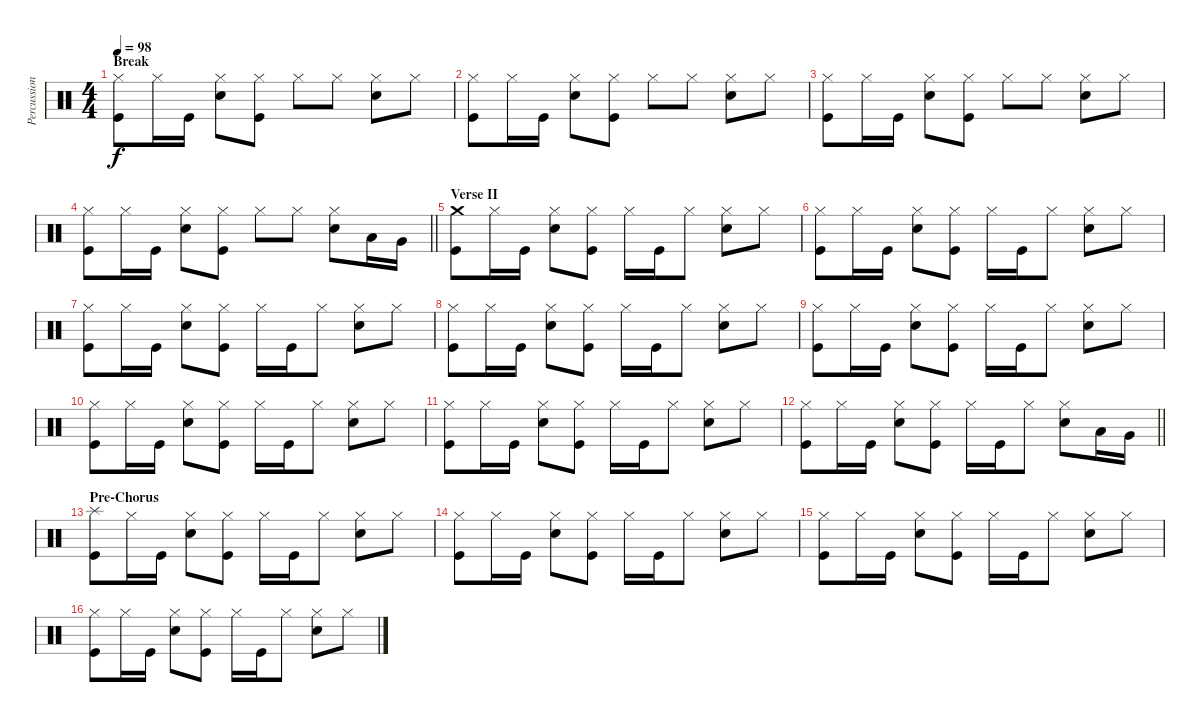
\track ("Percussion" "Percussion") {instrument percussion}
\staff {score}
\articulation defaults
\ts (4 4)
\section ("" "Break")
\tempo 98
\clef neutral
\ks c
("Hi-Hat (closed)" "Kick (hit)").8{dy f} "Hi-Hat (closed)".16 "Kick (hit)".16 ("Hi-Hat (closed)" "Electric Snare (hit)").8 ("Hi-Hat (closed)" "Kick (hit)").8 "Hi-Hat (closed)".8 "Hi-Hat (closed)".8 ("Hi-Hat (closed)" "Electric Snare (hit)").8 "Hi-Hat (closed)".8 |
("Hi-Hat (closed)" "Kick (hit)").8 "Hi-Hat (closed)".16 "Kick (hit)".16 ("Hi-Hat (closed)" "Electric Snare (hit)").8 ("Hi-Hat (closed)" "Kick (hit)").8 "Hi-Hat (closed)".8 "Hi-Hat (closed)".8 ("Hi-Hat (closed)" "Electric Snare (hit)").8 "Hi-Hat (closed)".8 |
("Hi-Hat (closed)" "Kick (hit)").8 "Hi-Hat (closed)".16 "Kick (hit)".16 ("Hi-Hat (closed)" "Electric Snare (hit)").8 ("Hi-Hat (closed)" "Kick (hit)").8 "Hi-Hat (closed)".8 "Hi-Hat (closed)".8 ("Hi-Hat (closed)" "Electric Snare (hit)").8 "Hi-Hat (closed)".8 |
\barLineRight lightlight
("Hi-Hat (closed)" "Kick (hit)").8 "Hi-Hat (closed)".16 "Kick (hit)".16 ("Hi-Hat (closed)" "Electric Snare (hit)").8 ("Hi-Hat (closed)" "Kick (hit)").8 "Hi-Hat (closed)".8 "Hi-Hat (closed)".8 ("Hi-Hat (closed)" "Electric Snare (hit)").8 "Low Tom (hit)".16 "Very Low Tom (hit)".16 |
\section ("" "Verse II")
("Crash medium (hit)" "Kick (hit)").8 "Hi-Hat (closed)".16 "Kick (hit)".16 ("Hi-Hat (closed)" "Electric Snare (hit)").8 ("Hi-Hat (closed)" "Kick (hit)").8 "Hi-Hat (closed)".16 "Kick (hit)".16 "Hi-Hat (closed)".8 ("Hi-Hat (closed)" "Electric Snare (hit)").8 "Hi-Hat (closed)".8 |
("Hi-Hat (closed)" "Kick (hit)").8 "Hi-Hat (closed)".16 "Kick (hit)".16 ("Hi-Hat (closed)" "Electric Snare (hit)").8 ("Hi-Hat (closed)" "Kick (hit)").8 "Hi-Hat (closed)".16 "Kick (hit)".16 "Hi-Hat (closed)".8 ("Hi-Hat (closed)" "Electric Snare (hit)").8 "Hi-Hat (closed)".8 |
("Hi-Hat (closed)" "Kick (hit)").8 "Hi-Hat (closed)".16 "Kick (hit)".16 ("Hi-Hat (closed)" "Electric Snare (hit)").8 ("Hi-Hat (closed)" "Kick (hit)").8 "Hi-Hat (closed)".16 "Kick (hit)".16 "Hi-Hat (closed)".8 ("Hi-Hat (closed)" "Electric Snare (hit)").8 "Hi-Hat (closed)".8 |
("Hi-Hat (closed)" "Kick (hit)").8 "Hi-Hat (closed)".16 "Kick (hit)".16 ("Hi-Hat (closed)" "Electric Snare (hit)").8 ("Hi-Hat (closed)" "Kick (hit)").8 "Hi-Hat (closed)".16 "Kick (hit)".16 "Hi-Hat (closed)".8 ("Hi-Hat (closed)" "Electric Snare (hit)").8 "Hi-Hat (closed)".8 |
("Hi-Hat (closed)" "Kick (hit)").8 "Hi-Hat (closed)".16 "Kick (hit)".16 ("Hi-Hat (closed)" "Electric Snare (hit)").8 ("Hi-Hat (closed)" "Kick (hit)").8 "Hi-Hat (closed)".16 "Kick (hit)".16 "Hi-Hat (closed)".8 ("Hi-Hat (closed)" "Electric Snare (hit)").8 "Hi-Hat (closed)".8 |
("Hi-Hat (closed)" "Kick (hit)").8 "Hi-Hat (closed)".16 "Kick (hit)".16 ("Hi-Hat (closed)" "Electric Snare (hit)").8 ("Hi-Hat (closed)" "Kick (hit)").8 "Hi-Hat (closed)".16 "Kick (hit)".16 "Hi-Hat (closed)".8 ("Hi-Hat (closed)" "Electric Snare (hit)").8 "Hi-Hat (closed)".8 |
("Hi-Hat (closed)" "Kick (hit)").8 "Hi-Hat (closed)".16 "Kick (hit)".16 ("Hi-Hat (closed)" "Electric Snare (hit)").8 ("Hi-Hat (closed)" "Kick (hit)").8 "Hi-Hat (closed)".16 "Kick (hit)".16 "Hi-Hat (closed)".8 ("Hi-Hat (closed)" "Electric Snare (hit)").8 "Hi-Hat (closed)".8 |
\barLineRight lightlight
("Hi-Hat (closed)" "Kick (hit)").8 "Hi-Hat (closed)".16 "Kick (hit)".16 ("Hi-Hat (closed)" "Electric Snare (hit)").8 ("Hi-Hat (closed)" "Kick (hit)").8 "Hi-Hat (closed)".16 "Kick (hit)".16 "Hi-Hat (closed)".8 ("Hi-Hat (closed)" "Electric Snare (hit)").8 "Low Tom (hit)".16 "Very Low Tom (hit)".16 |
\section ("" "Pre-Chorus")
("Splash (hit)" "Kick (hit)").8 "Hi-Hat (closed)".16 "Kick (hit)".16 ("Hi-Hat (closed)" "Electric Snare (hit)").8 ("Hi-Hat (closed)" "Kick (hit)").8 "Hi-Hat (closed)".16 "Kick (hit)".16 "Hi-Hat (closed)".8 ("Hi-Hat (closed)" "Electric Snare (hit)").8 "Hi-Hat (closed)".8 |
("Hi-Hat (closed)" "Kick (hit)").8 "Hi-Hat (closed)".16 "Kick (hit)".16 ("Hi-Hat (closed)" "Electric Snare (hit)").8 ("Hi-Hat (closed)" "Kick (hit)").8 "Hi-Hat (closed)".16 "Kick (hit)".16 "Hi-Hat (closed)".8 ("Hi-Hat (closed)" "Electric Snare (hit)").8 "Hi-Hat (closed)".8 |
("Hi-Hat (closed)" "Kick (hit)").8 "Hi-Hat (closed)".16 "Kick (hit)".16 ("Hi-Hat (closed)" "Electric Snare (hit)").8 ("Hi-Hat (closed)" "Kick (hit)").8 "Hi-Hat (closed)".16 "Kick (hit)".16 "Hi-Hat (closed)".8 ("Hi-Hat (closed)" "Electric Snare (hit)").8 "Hi-Hat (closed)".8 |
("Hi-Hat (closed)" "Kick (hit)").8 "Hi-Hat (closed)".16 "Kick (hit)".16 ("Hi-Hat (closed)" "Electric Snare (hit)").8 ("Hi-Hat (closed)" "Kick (hit)").8 "Hi-Hat (closed)".16 "Kick (hit)".16 "Hi-Hat (closed)".8 ("Hi-Hat (closed)" "Electric Snare (hit)").8 "Hi-Hat (closed)".8
